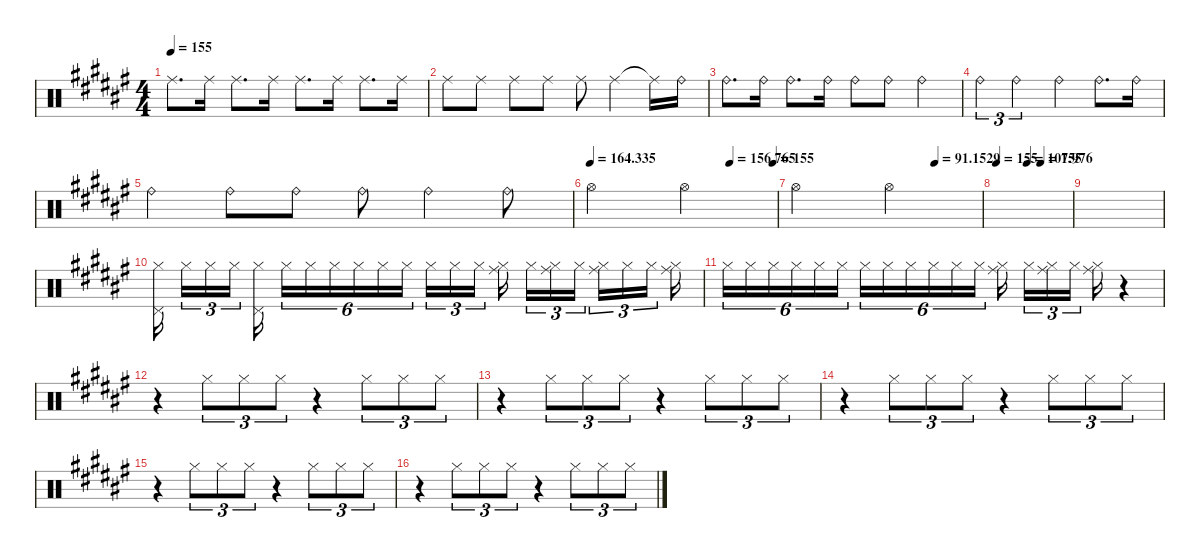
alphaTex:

\hideDynamics
\bracketExtendMode nobrackets
\singleTrackTrackNamePolicy hidden
\multiTrackTrackNamePolicy hidden
\otherSystemsTrackNameOrientation horizontal
\track ("Perc" "Drums") {instrument percussion}
\staff {score}
\articulation defaults
\ts (4 4)
\tempo 155
\clef neutral
\ks f# "Ride (middle)"{acc forcenatural}.8{d dy pp beam Down} "Ride (middle)"{acc forcenatural}.16{beam Down} "Ride (middle)"{acc forcenatural}.8{d beam Down} "Ride (middle)"{acc forcenatural}.16{beam Down} "Ride (middle)"{acc forcenatural}.8{d beam Down} "Ride (middle)"{acc forcenatural}.16{beam Down} "Ride (middle)"{acc forcenatural}.8{d beam Down} "Ride (middle)"{acc forcenatural}.16{beam Down}
|
"Ride (middle)"{acc forcenatural}.8{beam Down} "Ride (middle)"{acc forcenatural}.8{beam Down} "Ride (middle)"{acc forcenatural}.8{beam Down} "Ride (middle)"{acc forcenatural}.8{beam Down} "Ride (middle)"{acc forcenatural}.8{beam Down} "Ride (middle)"{acc forcenatural}.4{beam Down} "Ride (middle)"{t acc forcenatural}.16{beam Down} "Ride (bell)"{acc forcenatural}.16{beam Down} |
"Ride (bell)"{acc forcenatural}.8{d beam Down} "Ride (bell)"{acc forcenatural}.16{beam Down} "Ride (bell)"{acc forcenatural}.8{d beam Down} "Ride (bell)"{acc forcenatural}.16{beam Down} "Ride (bell)"{acc forcenatural}.8{beam Down} "Ride (bell)"{acc forcenatural}.8{beam Down} "Ride (bell)"{acc forcenatural}.4{beam Down} |
"Ride (bell)"{acc forcenatural}.4{tu (3 2) beam Down} "Ride (bell)"{acc forcenatural}.2{tu (3 2) beam Down} "Ride (bell)"{acc forcenatural}.4{beam Down} "Ride (bell)"{acc forcenatural}.8{d beam Down} "Ride (bell)"{acc forcenatural}.16{beam Down} |
"Ride (bell)"{acc forcenatural}.4{beam Down} "Ride (bell)"{acc forcenatural}.8{beam Down} "Ride (bell)"{acc forcenatural}.8{beam Down} "Ride (bell)"{acc forcenatural}.8{beam Down} "Ride (bell)"{acc forcenatural}.4{beam Down} "Ride (bell)"{acc forcenatural}.8{beam Down} |
\tempo
164.335
\tempo (156.765 0.75)
\tempo (155 0.98125)
"Hi-Hat (open)"{acc forcenatural}.2{dy p beam Down} "Hi-Hat (open)"{acc forcenatural}.2{beam Down} |
\tempo (91.1529 0.75)
"Hi-Hat (open)"{acc forcenatural}.2{beam Down} "Hi-Hat (open)"{acc forcenatural}.2{beam Down} |
\tempo (155 0.01875)
\tempo (107.976 0.41875)
\tempo (155 0.59375)
|
|
("Hi-Hat (closed)"{acc forcenatural} "Pedal Hi-Hat (hit)"{acc forcenatural}).16{beam Down} "Hi-Hat (closed)"{acc forcenatural}.16{tu (3 2) beam Down} "Hi-Hat (closed)"{acc forcenatural}.16{tu (3 2) beam Down} "Hi-Hat (closed)"{acc forcenatural}.16{tu (3 2) beam Down} ("Hi-Hat (closed)"{acc forcenatural} "Pedal Hi-Hat (hit)"{acc forcenatural}).16{beam Down} "Hi-Hat (closed)"{acc forcenatural}.16{tu (6 4) beam Down} "Hi-Hat (closed)"{acc forcenatural}.16{tu (6 4) beam Down} "Hi-Hat (closed)"{acc forcenatural}.16{tu (6 4) beam Down} "Hi-Hat (closed)"{acc forcenatural}.16{tu (6 4) beam Down} "Hi-Hat (closed)"{acc forcenatural}.16{tu (6 4) beam Down} "Hi-Hat (closed)"{acc forcenatural}.16{tu (6 4) beam Down} "Hi-Hat (closed)"{acc forcenatural}.16{tu (3 2) beam Down} "Hi-Hat (closed)"{acc forcenatural}.16{tu (3 2) beam Down} "Hi-Hat (closed)"{acc forcenatural}.16{tu (3 2) beam Down} ("Hi-Hat (closed)"{acc forcenatural} "Ride (middle)"{acc forcenatural}).16{beam Down} "Hi-Hat (closed)"{acc forcenatural}.16{tu (3 2) beam Down} ("Hi-Hat (closed)"{acc forcenatural} "Ride (middle)"{acc forcenatural}).16{tu (3 2) beam Down} "Hi-Hat (closed)"{acc forcenatural}.16{tu (3 2) beam Down} ("Hi-Hat (closed)"{acc forcenatural} "Ride (middle)"{acc forcenatural}).16{tu (3 2) beam Down} "Hi-Hat (closed)"{acc forcenatural}.16{tu (3 2) beam Down} "Hi-Hat (closed)"{acc forcenatural}.16{tu (3 2) beam Down} ("Hi-Hat (closed)"{acc forcenatural} "Ride (middle)"{acc forcenatural}).16{beam Down} |
"Hi-Hat (closed)"{acc forcenatural}.16{tu (6 4) beam Down} "Hi-Hat (closed)"{acc forcenatural}.16{tu (6 4) beam Down} "Hi-Hat (closed)"{acc forcenatural}.16{tu (6 4) beam Down} "Hi-Hat (closed)"{acc forcenatural}.16{tu (6 4) beam Down} "Hi-Hat (closed)"{acc forcenatural}.16{tu (6 4) beam Down} "Hi-Hat (closed)"{acc forcenatural}.16{tu (6 4) beam Down} "Hi-Hat (closed)"{acc forcenatural}.16{tu (6 4) beam Down} "Hi-Hat (closed)"{acc forcenatural}.16{tu (6 4) beam Down} "Hi-Hat (closed)"{acc forcenatural}.16{tu (6 4) beam Down} "Hi-Hat (closed)"{acc forcenatural}.16{tu (6 4) beam Down} "Hi-Hat (closed)"{acc forcenatural}.16{tu (6 4) beam Down} "Hi-Hat (closed)"{acc forcenatural}.16{tu (6 4) beam Down} ("Hi-Hat (closed)"{acc forcenatural} "Ride (middle)"{acc forcenatural}).16{beam Down} "Hi-Hat (closed)"{acc forcenatural}.16{tu (3 2) beam Down} ("Hi-Hat (closed)"{acc forcenatural} "Ride (middle)"{acc forcenatural}).16{tu (3 2) beam Down} "Hi-Hat (closed)"{acc forcenatural}.16{tu (3 2) beam Down} ("Hi-Hat (closed)"{acc forcenatural} "Ride (middle)"{acc forcenatural}).16{beam Down} r.4{beam Down} |
r.4{beam Down} "Hi-Hat (closed)"{acc forcenatural}.8{tu (3 2) dy mp beam Down} "Hi-Hat (closed)"{acc forcenatural}.8{tu (3 2) beam Down} "Hi-Hat (closed)"{acc forcenatural}.8{tu (3 2) beam Down} r.4{beam Down} "Hi-Hat (closed)"{acc forcenatural}.8{tu (3 2) beam Down} "Hi-Hat (closed)"{acc forcenatural}.8{tu (3 2) beam Down} "Hi-Hat (closed)"{acc forcenatural}.8{tu (3 2) beam Down} |
r.4{beam Down} "Hi-Hat (closed)"{acc forcenatural}.8{tu (3 2) beam Down} "Hi-Hat (closed)"{acc forcenatural}.8{tu (3 2) beam Down} "Hi-Hat (closed)"{acc forcenatural}.8{tu (3 2) beam Down} r.4{beam Down} "Hi-Hat (closed)"{acc forcenatural}.8{tu (3 2) beam Down} "Hi-Hat (closed)"{acc forcenatural}.8{tu (3 2) beam Down} "Hi-Hat (closed)"{acc forcenatural}.8{tu (3 2) beam Down} |
r.4{beam Down} "Hi-Hat (closed)"{acc forcenatural}.8{tu (3 2) beam Down} "Hi-Hat (closed)"{acc forcenatural}.8{tu (3 2) beam Down} "Hi-Hat (closed)"{acc forcenatural}.8{tu (3 2) beam Down} r.4{beam Down} "Hi-Hat (closed)"{acc forcenatural}.8{tu (3 2) beam Down} "Hi-Hat (closed)"{acc forcenatural}.8{tu (3 2) beam Down} "Hi-Hat (closed)"{acc forcenatural}.8{tu (3 2) beam Down} |
r.4{beam Down} "Hi-Hat (closed)"{acc forcenatural}.8{tu (3 2) beam Down} "Hi-Hat (closed)"{acc forcenatural}.8{tu (3 2) beam Down} "Hi-Hat (closed)"{acc forcenatural}.8{tu (3 2) beam Down} r.4{beam Down} "Hi-Hat (closed)"{acc forcenatural}.8{tu (3 2) beam Down} "Hi-Hat (closed)"{acc forcenatural}.8{tu (3 2) beam Down} "Hi-Hat (closed)"{acc forcenatural}.8{tu (3 2) beam Down} |
r.4{beam Down} "Hi-Hat (closed)"{acc forcenatural}.8{tu (3 2) beam Down} "Hi-Hat (closed)"{acc forcenatural}.8{tu (3 2) beam Down} "Hi-Hat (closed)"{acc forcenatural}.8{tu (3 2) beam Down} r.4{beam Down} "Hi-Hat (closed)"{acc forcenatural}.8{tu (3 2) beam Down} "Hi-Hat (closed)"{acc forcenatural}.8{tu (3 2) beam Down} "Hi-Hat (closed)"{acc forcenatural}.8{tu (3 2) beam Down}
